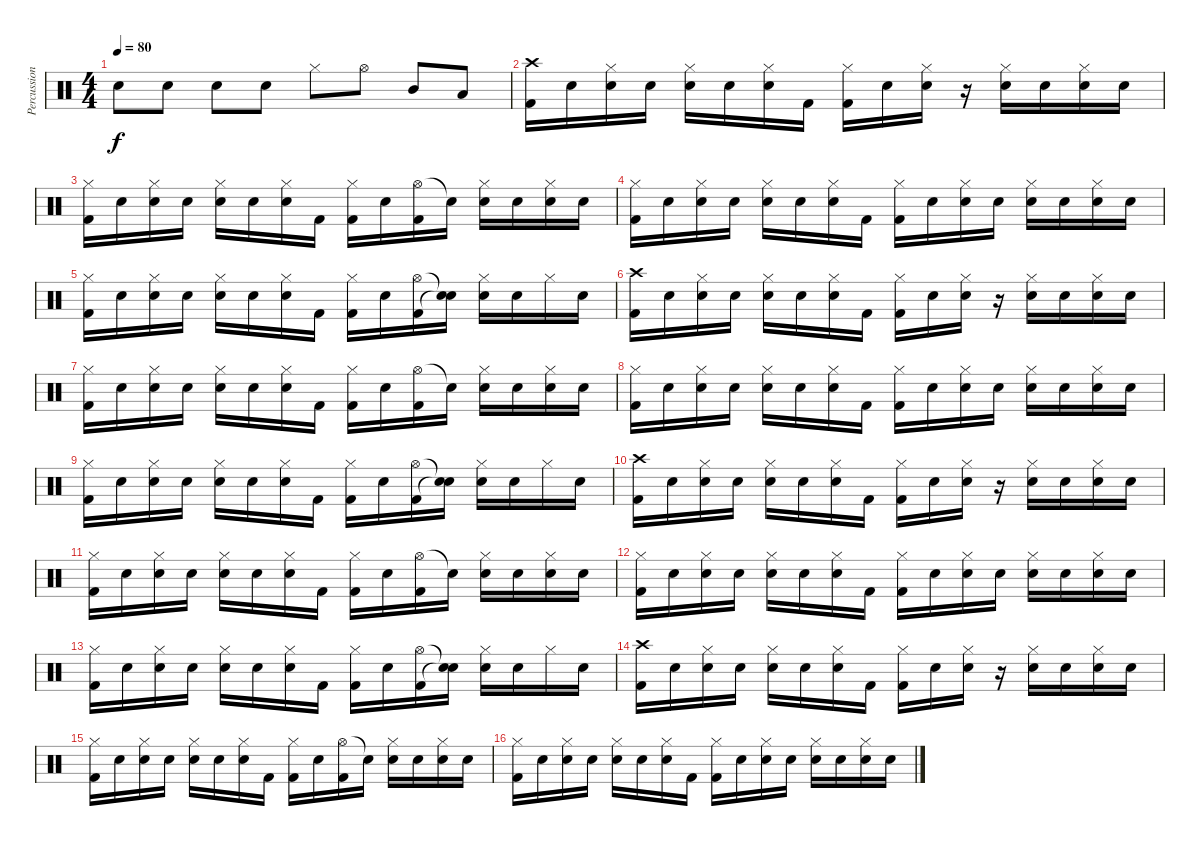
\track ("Percussion" "Percussion") {instrument percussion}
\staff {score}
\articulation defaults
\ts (4 4)
\tempo 80
\clef neutral
\ks c "Snare (hit)".8{dy f} "Snare (hit)".8 "Snare (hit)".8 "Snare (hit)".8 "Hi-Hat (closed)".8 "Hi-Hat (open)".8 "Mid Tom (hit)".8 "Low Tom (hit)".8
|
("Crash high (hit)" "Kick (hit) 2").16 "Snare (hit)".16 ("Hi-Hat (closed)" "Snare (hit)").16 "Snare (hit)".16 ("Hi-Hat (closed)" "Snare (hit) 2").16 "Snare (hit)".16 ("Hi-Hat (closed)" "Snare (hit)").16 "Kick (hit) 2".16 ("Hi-Hat (closed)" "Kick (hit) 2").16 "Snare (hit)".16 ("Hi-Hat (closed)" "Snare (hit)").16 r.16 ("Hi-Hat (closed)" "Snare (hit) 2").16 "Snare (hit)".16 ("Hi-Hat (closed)" "Snare (hit)").16 "Snare (hit)".16 |
("Hi-Hat (closed)" "Kick (hit) 2").16 "Snare (hit)".16 ("Hi-Hat (closed)" "Snare (hit)").16 "Snare (hit)".16 ("Hi-Hat (closed)" "Snare (hit) 2").16 "Snare (hit)".16 ("Hi-Hat (closed)" "Snare (hit)").16 "Kick (hit) 2".16 ("Hi-Hat (closed)" "Kick (hit) 2").16 "Snare (hit)".16 ("Hi-Hat (open)" "Kick (hit) 2").16 "Snare (hit)"{t}.16 ("Hi-Hat (closed)" "Snare (hit) 2").16 "Snare (hit)".16 ("Hi-Hat (closed)" "Snare (hit)").16 "Snare (hit)".16 |
("Hi-Hat (closed)" "Kick (hit) 2").16 "Snare (hit)".16 ("Hi-Hat (closed)" "Snare (hit)").16 "Snare (hit)".16 ("Hi-Hat (closed)" "Snare (hit) 2").16 "Snare (hit)".16 ("Hi-Hat (closed)" "Snare (hit)").16 "Kick (hit) 2".16 ("Hi-Hat (closed)" "Kick (hit) 2").16 "Snare (hit)".16 ("Hi-Hat (closed)" "Snare (hit)").16 "Snare (hit)".16 ("Hi-Hat (closed)" "Snare (hit) 2").16 "Snare (hit)".16 ("Hi-Hat (closed)" "Snare (hit)").16 "Snare (hit)".16 |
("Hi-Hat (closed)" "Kick (hit) 2").16 "Snare (hit)".16 ("Hi-Hat (closed)" "Snare (hit)").16 "Snare (hit)".16 ("Hi-Hat (closed)" "Snare (hit) 2").16 "Snare (hit)".16 ("Hi-Hat (closed)" "Snare (hit)").16 "Kick (hit) 2".16 ("Hi-Hat (closed)" "Kick (hit) 2").16 "Snare (hit)".16 ("Hi-Hat (open)" "Kick (hit) 2").16 ("Snare (hit)"{t} "Snare (hit)"{t}).16 ("Hi-Hat (closed)" "Snare (hit) 2").16 "Snare (hit)".16 "Hi-Hat (closed)".16 "Snare (hit)".16 |
("Crash high (hit)" "Kick (hit) 2").16 "Snare (hit)".16 ("Hi-Hat (closed)" "Snare (hit)").16 "Snare (hit)".16 ("Hi-Hat (closed)" "Snare (hit) 2").16 "Snare (hit)".16 ("Hi-Hat (closed)" "Snare (hit)").16 "Kick (hit) 2".16 ("Hi-Hat (closed)" "Kick (hit) 2").16 "Snare (hit)".16 ("Hi-Hat (closed)" "Snare (hit)").16 r.16 ("Hi-Hat (closed)" "Snare (hit) 2").16 "Snare (hit)".16 ("Hi-Hat (closed)" "Snare (hit)").16 "Snare (hit)".16 |
("Hi-Hat (closed)" "Kick (hit) 2").16 "Snare (hit)".16 ("Hi-Hat (closed)" "Snare (hit)").16 "Snare (hit)".16 ("Hi-Hat (closed)" "Snare (hit) 2").16 "Snare (hit)".16 ("Hi-Hat (closed)" "Snare (hit)").16 "Kick (hit) 2".16 ("Hi-Hat (closed)" "Kick (hit) 2").16 "Snare (hit)".16 ("Hi-Hat (open)" "Kick (hit) 2").16 "Snare (hit)"{t}.16 ("Hi-Hat (closed)" "Snare (hit) 2").16 "Snare (hit)".16 ("Hi-Hat (closed)" "Snare (hit)").16 "Snare (hit)".16 |
("Hi-Hat (closed)" "Kick (hit) 2").16 "Snare (hit)".16 ("Hi-Hat (closed)" "Snare (hit)").16 "Snare (hit)".16 ("Hi-Hat (closed)" "Snare (hit) 2").16 "Snare (hit)".16 ("Hi-Hat (closed)" "Snare (hit)").16 "Kick (hit) 2".16 ("Hi-Hat (closed)" "Kick (hit) 2").16 "Snare (hit)".16 ("Hi-Hat (closed)" "Snare (hit)").16 "Snare (hit)".16 ("Hi-Hat (closed)" "Snare (hit) 2").16 "Snare (hit)".16 ("Hi-Hat (closed)" "Snare (hit)").16 "Snare (hit)".16 |
("Hi-Hat (closed)" "Kick (hit) 2").16 "Snare (hit)".16 ("Hi-Hat (closed)" "Snare (hit)").16 "Snare (hit)".16 ("Hi-Hat (closed)" "Snare (hit) 2").16 "Snare (hit)".16 ("Hi-Hat (closed)" "Snare (hit)").16 "Kick (hit) 2".16 ("Hi-Hat (closed)" "Kick (hit) 2").16 "Snare (hit)".16 ("Hi-Hat (open)" "Kick (hit) 2").16 ("Snare (hit)"{t} "Snare (hit)"{t}).16 ("Hi-Hat (closed)" "Snare (hit) 2").16 "Snare (hit)".16 "Hi-Hat (closed)".16 "Snare (hit)".16 |
("Crash high (hit)" "Kick (hit) 2").16 "Snare (hit)".16 ("Hi-Hat (closed)" "Snare (hit)").16 "Snare (hit)".16 ("Hi-Hat (closed)" "Snare (hit) 2").16 "Snare (hit)".16 ("Hi-Hat (closed)" "Snare (hit)").16 "Kick (hit) 2".16 ("Hi-Hat (closed)" "Kick (hit) 2").16 "Snare (hit)".16 ("Hi-Hat (closed)" "Snare (hit)").16 r.16 ("Hi-Hat (closed)" "Snare (hit) 2").16 "Snare (hit)".16 ("Hi-Hat (closed)" "Snare (hit)").16 "Snare (hit)".16 |
("Hi-Hat (closed)" "Kick (hit) 2").16 "Snare (hit)".16 ("Hi-Hat (closed)" "Snare (hit)").16 "Snare (hit)".16 ("Hi-Hat (closed)" "Snare (hit) 2").16 "Snare (hit)".16 ("Hi-Hat (closed)" "Snare (hit)").16 "Kick (hit) 2".16 ("Hi-Hat (closed)" "Kick (hit) 2").16 "Snare (hit)".16 ("Hi-Hat (open)" "Kick (hit) 2").16 "Snare (hit)"{t}.16 ("Hi-Hat (closed)" "Snare (hit) 2").16 "Snare (hit)".16 ("Hi-Hat (closed)" "Snare (hit)").16 "Snare (hit)".16 |
("Hi-Hat (closed)" "Kick (hit) 2").16 "Snare (hit)".16 ("Hi-Hat (closed)" "Snare (hit)").16 "Snare (hit)".16 ("Hi-Hat (closed)" "Snare (hit) 2").16 "Snare (hit)".16 ("Hi-Hat (closed)" "Snare (hit)").16 "Kick (hit) 2".16 ("Hi-Hat (closed)" "Kick (hit) 2").16 "Snare (hit)".16 ("Hi-Hat (closed)" "Snare (hit)").16 "Snare (hit)".16 ("Hi-Hat (closed)" "Snare (hit) 2").16 "Snare (hit)".16 ("Hi-Hat (closed)" "Snare (hit)").16 "Snare (hit)".16 |
("Hi-Hat (closed)" "Kick (hit) 2").16 "Snare (hit)".16 ("Hi-Hat (closed)" "Snare (hit)").16 "Snare (hit)".16 ("Hi-Hat (closed)" "Snare (hit) 2").16 "Snare (hit)".16 ("Hi-Hat (closed)" "Snare (hit)").16 "Kick (hit) 2".16 ("Hi-Hat (closed)" "Kick (hit) 2").16 "Snare (hit)".16 ("Hi-Hat (open)" "Kick (hit) 2").16 ("Snare (hit)"{t} "Snare (hit)"{t}).16 ("Hi-Hat (closed)" "Snare (hit) 2").16 "Snare (hit)".16 "Hi-Hat (closed)".16 "Snare (hit)".16 |
("Crash high (hit)" "Kick (hit) 2").16 "Snare (hit)".16 ("Hi-Hat (closed)" "Snare (hit)").16 "Snare (hit)".16 ("Hi-Hat (closed)" "Snare (hit) 2").16 "Snare (hit)".16 ("Hi-Hat (closed)" "Snare (hit)").16 "Kick (hit) 2".16 ("Hi-Hat (closed)" "Kick (hit) 2").16 "Snare (hit)".16 ("Hi-Hat (closed)" "Snare (hit)").16 r.16 ("Hi-Hat (closed)" "Snare (hit) 2").16 "Snare (hit)".16 ("Hi-Hat (closed)" "Snare (hit)").16 "Snare (hit)".16 |
("Hi-Hat (closed)" "Kick (hit) 2").16 "Snare (hit)".16 ("Hi-Hat (closed)" "Snare (hit)").16 "Snare (hit)".16 ("Hi-Hat (closed)" "Snare (hit) 2").16 "Snare (hit)".16 ("Hi-Hat (closed)" "Snare (hit)").16 "Kick (hit) 2".16 ("Hi-Hat (closed)" "Kick (hit) 2").16 "Snare (hit)".16 ("Hi-Hat (open)" "Kick (hit) 2").16 "Snare (hit)"{t}.16 ("Hi-Hat (closed)" "Snare (hit) 2").16 "Snare (hit)".16 ("Hi-Hat (closed)" "Snare (hit)").16 "Snare (hit)".16 |
("Hi-Hat (closed)" "Kick (hit) 2").16 "Snare (hit)".16 ("Hi-Hat (closed)" "Snare (hit)").16 "Snare (hit)".16 ("Hi-Hat (closed)" "Snare (hit) 2").16 "Snare (hit)".16 ("Hi-Hat (closed)" "Snare (hit)").16 "Kick (hit) 2".16 ("Hi-Hat (closed)" "Kick (hit) 2").16 "Snare (hit)".16 ("Hi-Hat (closed)" "Snare (hit)").16 "Snare (hit)".16 ("Hi-Hat (closed)" "Snare (hit) 2").16 "Snare (hit)".16 ("Hi-Hat (closed)" "Snare (hit)").16 "Snare (hit)".16
